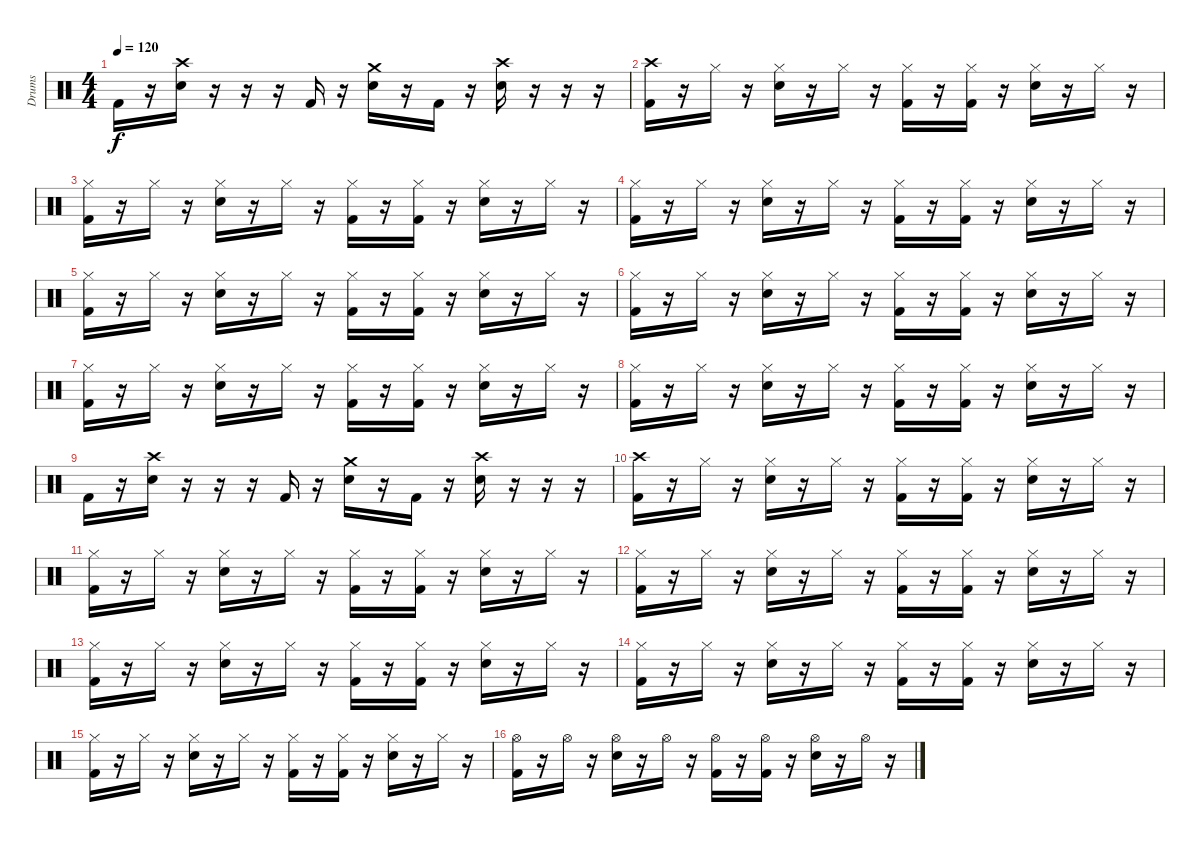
\track ("Drums" "Drums") {instrument percussion}
\staff {score}
\articulation defaults
\ts (4 4)
\tempo 120
\clef neutral
\ks c "Kick (hit) 2".16{dy f}
r.16 ("Electric Snare (hit)" "Crash high (hit)").16 r.16 r.16 r.16 "Kick (hit) 2".16 r.16 ("Electric Snare (hit)" "Crash medium (hit)").16 r.16 "Kick (hit) 2".16 r.16 ("Electric Snare (hit)" "Crash high (hit)").16 r.16 r.16 r.16 |
("Kick (hit) 2" "Crash high (hit)").16 r.16 "Hi-Hat (closed)".16 r.16 ("Electric Snare (hit)" "Hi-Hat (closed)").16 r.16 "Hi-Hat (closed)".16 r.16 ("Kick (hit) 2" "Hi-Hat (closed)").16 r.16 ("Kick (hit) 2" "Hi-Hat (closed)").16 r.16 ("Electric Snare (hit)" "Hi-Hat (closed)").16 r.16 "Hi-Hat (closed)".16 r.16 |
("Kick (hit) 2" "Hi-Hat (closed)").16 r.16 "Hi-Hat (closed)".16 r.16 ("Electric Snare (hit)" "Hi-Hat (closed)").16 r.16 "Hi-Hat (closed)".16 r.16 ("Kick (hit) 2" "Hi-Hat (closed)").16 r.16 ("Kick (hit) 2" "Hi-Hat (closed)").16 r.16 ("Electric Snare (hit)" "Hi-Hat (closed)").16 r.16 "Hi-Hat (closed)".16 r.16 |
("Kick (hit) 2" "Hi-Hat (closed)").16 r.16 "Hi-Hat (closed)".16 r.16 ("Electric Snare (hit)" "Hi-Hat (closed)").16 r.16 "Hi-Hat (closed)".16 r.16 ("Kick (hit) 2" "Hi-Hat (closed)").16 r.16 ("Kick (hit) 2" "Hi-Hat (closed)").16 r.16 ("Electric Snare (hit)" "Hi-Hat (closed)").16 r.16 "Hi-Hat (closed)".16 r.16 |
("Kick (hit) 2" "Hi-Hat (closed)").16 r.16 "Hi-Hat (closed)".16 r.16 ("Electric Snare (hit)" "Hi-Hat (closed)").16 r.16 "Hi-Hat (closed)".16 r.16 ("Kick (hit) 2" "Hi-Hat (closed)").16 r.16 ("Kick (hit) 2" "Hi-Hat (closed)").16 r.16 ("Electric Snare (hit)" "Hi-Hat (closed)").16 r.16 "Hi-Hat (closed)".16 r.16 |
("Kick (hit) 2" "Hi-Hat (closed)").16 r.16 "Hi-Hat (closed)".16 r.16 ("Electric Snare (hit)" "Hi-Hat (closed)").16 r.16 "Hi-Hat (closed)".16 r.16 ("Kick (hit) 2" "Hi-Hat (closed)").16 r.16 ("Kick (hit) 2" "Hi-Hat (closed)").16 r.16 ("Electric Snare (hit)" "Hi-Hat (closed)").16 r.16 "Hi-Hat (closed)".16 r.16 |
("Kick (hit) 2" "Hi-Hat (closed)").16 r.16 "Hi-Hat (closed)".16 r.16 ("Electric Snare (hit)" "Hi-Hat (closed)").16 r.16 "Hi-Hat (closed)".16 r.16 ("Kick (hit) 2" "Hi-Hat (closed)").16 r.16 ("Kick (hit) 2" "Hi-Hat (closed)").16 r.16 ("Electric Snare (hit)" "Hi-Hat (closed)").16 r.16 "Hi-Hat (closed)".16 r.16 |
("Kick (hit) 2" "Hi-Hat (closed)").16 r.16 "Hi-Hat (closed)".16 r.16 ("Electric Snare (hit)" "Hi-Hat (closed)").16 r.16 "Hi-Hat (closed)".16 r.16 ("Kick (hit) 2" "Hi-Hat (closed)").16 r.16 ("Kick (hit) 2" "Hi-Hat (closed)").16 r.16 ("Electric Snare (hit)" "Hi-Hat (closed)").16 r.16 "Hi-Hat (closed)".16 r.16 |
"Kick (hit) 2".16 r.16 ("Electric Snare (hit)" "Crash high (hit)").16 r.16 r.16 r.16 "Kick (hit) 2".16 r.16 ("Electric Snare (hit)" "Crash medium (hit)").16 r.16 "Kick (hit) 2".16 r.16 ("Electric Snare (hit)" "Crash high (hit)").16 r.16 r.16 r.16 |
("Kick (hit) 2" "Crash high (hit)").16 r.16 "Hi-Hat (closed)".16 r.16 ("Electric Snare (hit)" "Hi-Hat (closed)").16 r.16 "Hi-Hat (closed)".16 r.16 ("Kick (hit) 2" "Hi-Hat (closed)").16 r.16 ("Kick (hit) 2" "Hi-Hat (closed)").16 r.16 ("Electric Snare (hit)" "Hi-Hat (closed)").16 r.16 "Hi-Hat (closed)".16 r.16 |
("Kick (hit) 2" "Hi-Hat (closed)").16 r.16 "Hi-Hat (closed)".16 r.16 ("Electric Snare (hit)" "Hi-Hat (closed)").16 r.16 "Hi-Hat (closed)".16 r.16 ("Kick (hit) 2" "Hi-Hat (closed)").16 r.16 ("Kick (hit) 2" "Hi-Hat (closed)").16 r.16 ("Electric Snare (hit)" "Hi-Hat (closed)").16 r.16 "Hi-Hat (closed)".16 r.16 |
("Kick (hit) 2" "Hi-Hat (closed)").16 r.16 "Hi-Hat (closed)".16 r.16 ("Electric Snare (hit)" "Hi-Hat (closed)").16 r.16 "Hi-Hat (closed)".16 r.16 ("Kick (hit) 2" "Hi-Hat (closed)").16 r.16 ("Kick (hit) 2" "Hi-Hat (closed)").16 r.16 ("Electric Snare (hit)" "Hi-Hat (closed)").16 r.16 "Hi-Hat (closed)".16 r.16 |
("Kick (hit) 2" "Hi-Hat (closed)").16 r.16 "Hi-Hat (closed)".16 r.16 ("Electric Snare (hit)" "Hi-Hat (closed)").16 r.16 "Hi-Hat (closed)".16 r.16 ("Kick (hit) 2" "Hi-Hat (closed)").16 r.16 ("Kick (hit) 2" "Hi-Hat (closed)").16 r.16 ("Electric Snare (hit)" "Hi-Hat (closed)").16 r.16 "Hi-Hat (closed)".16 r.16 |
("Kick (hit) 2" "Hi-Hat (closed)").16 r.16 "Hi-Hat (closed)".16 r.16 ("Electric Snare (hit)" "Hi-Hat (closed)").16 r.16 "Hi-Hat (closed)".16 r.16 ("Kick (hit) 2" "Hi-Hat (closed)").16 r.16 ("Kick (hit) 2" "Hi-Hat (closed)").16 r.16 ("Electric Snare (hit)" "Hi-Hat (closed)").16 r.16 "Hi-Hat (closed)".16 r.16 |
("Kick (hit) 2" "Hi-Hat (closed)").16 r.16 "Hi-Hat (closed)".16 r.16 ("Electric Snare (hit)" "Hi-Hat (closed)").16 r.16 "Hi-Hat (closed)".16 r.16 ("Kick (hit) 2" "Hi-Hat (closed)").16 r.16 ("Kick (hit) 2" "Hi-Hat (closed)").16 r.16 ("Electric Snare (hit)" "Hi-Hat (closed)").16 r.16 "Hi-Hat (closed)".16 r.16 |
("Kick (hit) 2" "Hi-Hat (open)").16 r.16 "Hi-Hat (open)".16 r.16 ("Electric Snare (hit)" "Hi-Hat (open)").16 r.16 "Hi-Hat (open)".16 r.16 ("Kick (hit) 2" "Hi-Hat (open)").16 r.16 ("Kick (hit) 2" "Hi-Hat (open)").16 r.16 ("Electric Snare (hit)" "Hi-Hat (open)").16 r.16 "Hi-Hat (open)".16 r.16
